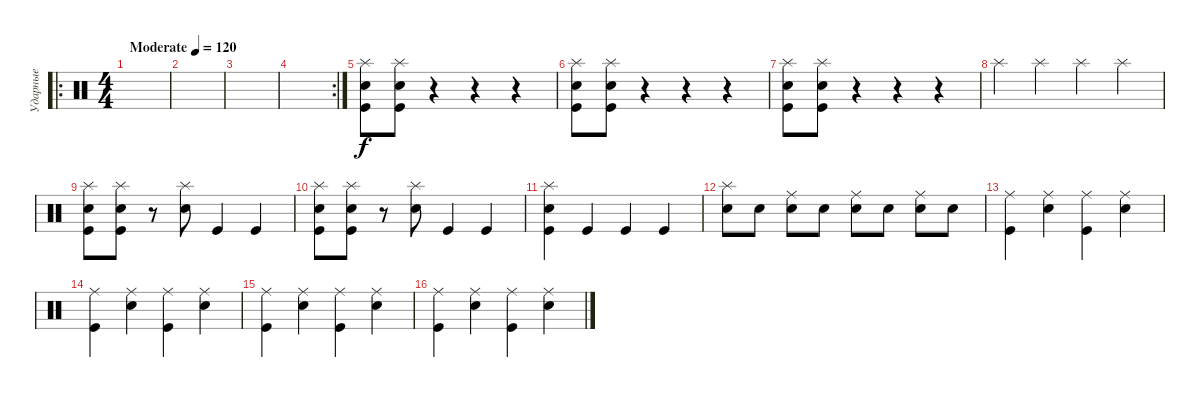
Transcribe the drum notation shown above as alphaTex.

\track ("Ударные" "Ударные") {instrument percussion}
\staff {score}
\articulation defaults
\ro
\ts (4 4)
\tempo (120 "Moderate")
\clef neutral
\ks c
|
|
|
\rc 2
|
("Snare (hit) 2" "Kick (hit)" "Splash (hit)").8 ("Snare (hit) 2" "Kick (hit)" "Splash (hit)").8 r.4 r.4 r.4 |
("Snare (hit) 2" "Kick (hit)" "Splash (hit)").8 ("Snare (hit) 2" "Kick (hit)" "Splash (hit)").8 r.4 r.4 r.4 |
("Snare (hit) 2" "Kick (hit)" "Splash (hit)").8 ("Snare (hit) 2" "Kick (hit)" "Splash (hit)").8 r.4 r.4 r.4 |
"Splash (hit)".4 "Splash (hit)".4 "Splash (hit)".4 "Splash (hit)".4 |
("Kick (hit)" "Snare (hit) 2" "Splash (hit)").8 ("Kick (hit)" "Snare (hit) 2" "Splash (hit)").8 r.8 ("Splash (hit)" "Snare (hit) 2").8 "Kick (hit)".4 "Kick (hit)".4 |
("Kick (hit)" "Snare (hit) 2" "Splash (hit)").8 ("Kick (hit)" "Snare (hit) 2" "Splash (hit)").8 r.8 ("Splash (hit)" "Snare (hit) 2").8 "Kick (hit)".4 "Kick (hit)".4 |
("Kick (hit)" "Snare (hit) 2" "Splash (hit)").4 "Kick (hit)".4 "Kick (hit)".4 "Kick (hit)".4 |
("Snare (hit) 2" "Splash (hit)").8 "Snare (hit) 2".8 ("Snare (hit) 2" "Ride (middle)").8 "Snare (hit) 2".8 ("Snare (hit) 2" "Ride (middle)").8 "Snare (hit) 2".8 ("Snare (hit) 2" "Ride (middle)").8 "Snare (hit) 2".8 |
("Kick (hit)" "Ride (middle)").4 ("Snare (hit) 2" "Ride (middle)").4 ("Kick (hit)" "Ride (middle)").4 ("Snare (hit) 2" "Ride (middle)").4 |
("Kick (hit)" "Ride (middle)").4 ("Snare (hit) 2" "Ride (middle)").4 ("Kick (hit)" "Ride (middle)").4 ("Snare (hit) 2" "Ride (middle)").4 |
("Kick (hit)" "Ride (middle)").4 ("Snare (hit) 2" "Ride (middle)").4 ("Kick (hit)" "Ride (middle)").4 ("Snare (hit) 2" "Ride (middle)").4 |
("Kick (hit)" "Ride (middle)").4 ("Snare (hit) 2" "Ride (middle)").4 ("Kick (hit)" "Ride (middle)").4 ("Snare (hit) 2" "Ride (middle)").4
